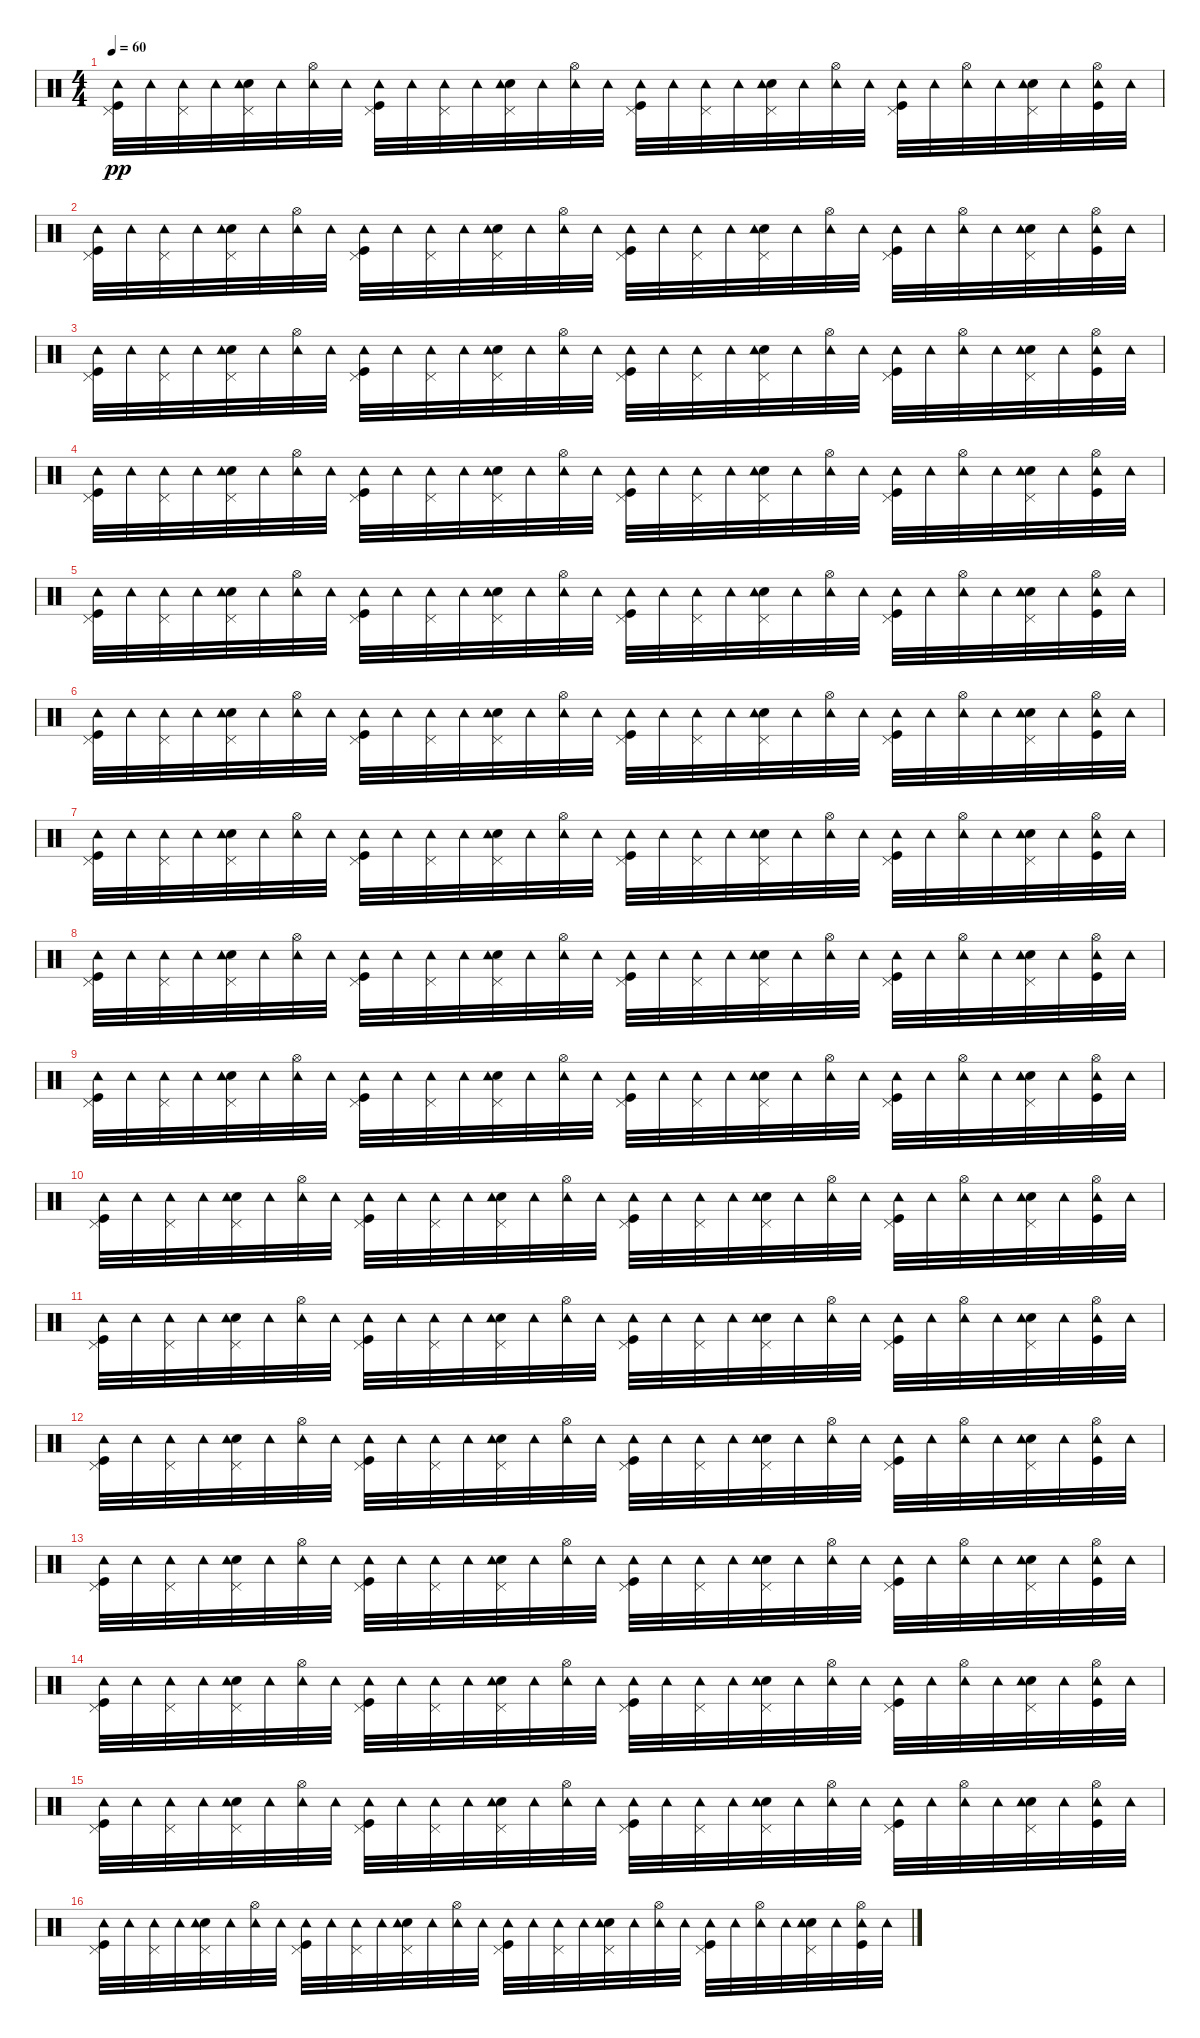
\track "" {instrument percussion}
\staff {score}
\articulation defaults
\ts (4 4)
\tempo 60
\clef neutral
\ks c
("Kick (hit)" "Pedal Hi-Hat (hit)" "Tambourine (hit)").32{dy pp} "Tambourine (hit)".32 ("Pedal Hi-Hat (hit)" "Tambourine (hit)").32 "Tambourine (hit)".32 ("Snare (hit) 2" "Pedal Hi-Hat (hit)" "Tambourine (hit)").32 "Tambourine (hit)".32 ("Hi-Hat (open)" "Tambourine (hit)").32 "Tambourine (hit)".32 ("Kick (hit)" "Pedal Hi-Hat (hit)" "Tambourine (hit)").32 "Tambourine (hit)".32 ("Pedal Hi-Hat (hit)" "Tambourine (hit)").32 "Tambourine (hit)".32 ("Snare (hit) 2" "Pedal Hi-Hat (hit)" "Tambourine (hit)").32 "Tambourine (hit)".32 ("Hi-Hat (open)" "Tambourine (hit)").32 "Tambourine (hit)".32 ("Kick (hit)" "Pedal Hi-Hat (hit)" "Tambourine (hit)").32 "Tambourine (hit)".32 ("Pedal Hi-Hat (hit)" "Tambourine (hit)").32 "Tambourine (hit)".32 ("Snare (hit) 2" "Pedal Hi-Hat (hit)" "Tambourine (hit)").32 "Tambourine (hit)".32 ("Hi-Hat (open)" "Tambourine (hit)").32 "Tambourine (hit)".32 ("Kick (hit)" "Pedal Hi-Hat (hit)" "Tambourine (hit)").32 "Tambourine (hit)".32 ("Hi-Hat (open)" "Tambourine (hit)").32 "Tambourine (hit)".32 ("Snare (hit) 2" "Pedal Hi-Hat (hit)" "Tambourine (hit)").32 "Tambourine (hit)".32 ("Kick (hit)" "Hi-Hat (open)" "Tambourine (hit)").32 "Tambourine (hit)".32 |
("Kick (hit)" "Pedal Hi-Hat (hit)" "Tambourine (hit)").32 "Tambourine (hit)".32 ("Pedal Hi-Hat (hit)" "Tambourine (hit)").32 "Tambourine (hit)".32 ("Snare (hit) 2" "Pedal Hi-Hat (hit)" "Tambourine (hit)").32 "Tambourine (hit)".32 ("Hi-Hat (open)" "Tambourine (hit)").32 "Tambourine (hit)".32 ("Kick (hit)" "Pedal Hi-Hat (hit)" "Tambourine (hit)").32 "Tambourine (hit)".32 ("Pedal Hi-Hat (hit)" "Tambourine (hit)").32 "Tambourine (hit)".32 ("Snare (hit) 2" "Pedal Hi-Hat (hit)" "Tambourine (hit)").32 "Tambourine (hit)".32 ("Hi-Hat (open)" "Tambourine (hit)").32 "Tambourine (hit)".32 ("Kick (hit)" "Pedal Hi-Hat (hit)" "Tambourine (hit)").32 "Tambourine (hit)".32 ("Pedal Hi-Hat (hit)" "Tambourine (hit)").32 "Tambourine (hit)".32 ("Snare (hit) 2" "Pedal Hi-Hat (hit)" "Tambourine (hit)").32 "Tambourine (hit)".32 ("Hi-Hat (open)" "Tambourine (hit)").32 "Tambourine (hit)".32 ("Kick (hit)" "Pedal Hi-Hat (hit)" "Tambourine (hit)").32 "Tambourine (hit)".32 ("Hi-Hat (open)" "Tambourine (hit)").32 "Tambourine (hit)".32 ("Snare (hit) 2" "Pedal Hi-Hat (hit)" "Tambourine (hit)").32 "Tambourine (hit)".32 ("Kick (hit)" "Hi-Hat (open)" "Tambourine (hit)").32 "Tambourine (hit)".32 |
("Kick (hit)" "Pedal Hi-Hat (hit)" "Tambourine (hit)").32 "Tambourine (hit)".32 ("Pedal Hi-Hat (hit)" "Tambourine (hit)").32 "Tambourine (hit)".32 ("Snare (hit) 2" "Pedal Hi-Hat (hit)" "Tambourine (hit)").32 "Tambourine (hit)".32 ("Hi-Hat (open)" "Tambourine (hit)").32 "Tambourine (hit)".32 ("Kick (hit)" "Pedal Hi-Hat (hit)" "Tambourine (hit)").32 "Tambourine (hit)".32 ("Pedal Hi-Hat (hit)" "Tambourine (hit)").32 "Tambourine (hit)".32 ("Snare (hit) 2" "Pedal Hi-Hat (hit)" "Tambourine (hit)").32 "Tambourine (hit)".32 ("Hi-Hat (open)" "Tambourine (hit)").32 "Tambourine (hit)".32 ("Kick (hit)" "Pedal Hi-Hat (hit)" "Tambourine (hit)").32 "Tambourine (hit)".32 ("Pedal Hi-Hat (hit)" "Tambourine (hit)").32 "Tambourine (hit)".32 ("Snare (hit) 2" "Pedal Hi-Hat (hit)" "Tambourine (hit)").32 "Tambourine (hit)".32 ("Hi-Hat (open)" "Tambourine (hit)").32 "Tambourine (hit)".32 ("Kick (hit)" "Pedal Hi-Hat (hit)" "Tambourine (hit)").32 "Tambourine (hit)".32 ("Hi-Hat (open)" "Tambourine (hit)").32 "Tambourine (hit)".32 ("Snare (hit) 2" "Pedal Hi-Hat (hit)" "Tambourine (hit)").32 "Tambourine (hit)".32 ("Kick (hit)" "Hi-Hat (open)" "Tambourine (hit)").32 "Tambourine (hit)".32 |
("Kick (hit)" "Pedal Hi-Hat (hit)" "Tambourine (hit)").32 "Tambourine (hit)".32 ("Pedal Hi-Hat (hit)" "Tambourine (hit)").32 "Tambourine (hit)".32 ("Snare (hit) 2" "Pedal Hi-Hat (hit)" "Tambourine (hit)").32 "Tambourine (hit)".32 ("Hi-Hat (open)" "Tambourine (hit)").32 "Tambourine (hit)".32 ("Kick (hit)" "Pedal Hi-Hat (hit)" "Tambourine (hit)").32 "Tambourine (hit)".32 ("Pedal Hi-Hat (hit)" "Tambourine (hit)").32 "Tambourine (hit)".32 ("Snare (hit) 2" "Pedal Hi-Hat (hit)" "Tambourine (hit)").32 "Tambourine (hit)".32 ("Hi-Hat (open)" "Tambourine (hit)").32 "Tambourine (hit)".32 ("Kick (hit)" "Pedal Hi-Hat (hit)" "Tambourine (hit)").32 "Tambourine (hit)".32 ("Pedal Hi-Hat (hit)" "Tambourine (hit)").32 "Tambourine (hit)".32 ("Snare (hit) 2" "Pedal Hi-Hat (hit)" "Tambourine (hit)").32 "Tambourine (hit)".32 ("Hi-Hat (open)" "Tambourine (hit)").32 "Tambourine (hit)".32 ("Kick (hit)" "Pedal Hi-Hat (hit)" "Tambourine (hit)").32 "Tambourine (hit)".32 ("Hi-Hat (open)" "Tambourine (hit)").32 "Tambourine (hit)".32 ("Snare (hit) 2" "Pedal Hi-Hat (hit)" "Tambourine (hit)").32 "Tambourine (hit)".32 ("Kick (hit)" "Hi-Hat (open)" "Tambourine (hit)").32 "Tambourine (hit)".32 |
("Kick (hit)" "Pedal Hi-Hat (hit)" "Tambourine (hit)").32 "Tambourine (hit)".32 ("Pedal Hi-Hat (hit)" "Tambourine (hit)").32 "Tambourine (hit)".32 ("Snare (hit) 2" "Pedal Hi-Hat (hit)" "Tambourine (hit)").32 "Tambourine (hit)".32 ("Hi-Hat (open)" "Tambourine (hit)").32 "Tambourine (hit)".32 ("Kick (hit)" "Pedal Hi-Hat (hit)" "Tambourine (hit)").32 "Tambourine (hit)".32 ("Pedal Hi-Hat (hit)" "Tambourine (hit)").32 "Tambourine (hit)".32 ("Snare (hit) 2" "Pedal Hi-Hat (hit)" "Tambourine (hit)").32 "Tambourine (hit)".32 ("Hi-Hat (open)" "Tambourine (hit)").32 "Tambourine (hit)".32 ("Kick (hit)" "Pedal Hi-Hat (hit)" "Tambourine (hit)").32 "Tambourine (hit)".32 ("Pedal Hi-Hat (hit)" "Tambourine (hit)").32 "Tambourine (hit)".32 ("Snare (hit) 2" "Pedal Hi-Hat (hit)" "Tambourine (hit)").32 "Tambourine (hit)".32 ("Hi-Hat (open)" "Tambourine (hit)").32 "Tambourine (hit)".32 ("Kick (hit)" "Pedal Hi-Hat (hit)" "Tambourine (hit)").32 "Tambourine (hit)".32 ("Hi-Hat (open)" "Tambourine (hit)").32 "Tambourine (hit)".32 ("Snare (hit) 2" "Pedal Hi-Hat (hit)" "Tambourine (hit)").32 "Tambourine (hit)".32 ("Kick (hit)" "Hi-Hat (open)" "Tambourine (hit)").32 "Tambourine (hit)".32 |
("Kick (hit)" "Pedal Hi-Hat (hit)" "Tambourine (hit)").32 "Tambourine (hit)".32 ("Pedal Hi-Hat (hit)" "Tambourine (hit)").32 "Tambourine (hit)".32 ("Snare (hit) 2" "Pedal Hi-Hat (hit)" "Tambourine (hit)").32 "Tambourine (hit)".32 ("Hi-Hat (open)" "Tambourine (hit)").32 "Tambourine (hit)".32 ("Kick (hit)" "Pedal Hi-Hat (hit)" "Tambourine (hit)").32 "Tambourine (hit)".32 ("Pedal Hi-Hat (hit)" "Tambourine (hit)").32 "Tambourine (hit)".32 ("Snare (hit) 2" "Pedal Hi-Hat (hit)" "Tambourine (hit)").32 "Tambourine (hit)".32 ("Hi-Hat (open)" "Tambourine (hit)").32 "Tambourine (hit)".32 ("Kick (hit)" "Pedal Hi-Hat (hit)" "Tambourine (hit)").32 "Tambourine (hit)".32 ("Pedal Hi-Hat (hit)" "Tambourine (hit)").32 "Tambourine (hit)".32 ("Snare (hit) 2" "Pedal Hi-Hat (hit)" "Tambourine (hit)").32 "Tambourine (hit)".32 ("Hi-Hat (open)" "Tambourine (hit)").32 "Tambourine (hit)".32 ("Kick (hit)" "Pedal Hi-Hat (hit)" "Tambourine (hit)").32 "Tambourine (hit)".32 ("Hi-Hat (open)" "Tambourine (hit)").32 "Tambourine (hit)".32 ("Snare (hit) 2" "Pedal Hi-Hat (hit)" "Tambourine (hit)").32 "Tambourine (hit)".32 ("Kick (hit)" "Hi-Hat (open)" "Tambourine (hit)").32 "Tambourine (hit)".32 |
("Kick (hit)" "Pedal Hi-Hat (hit)" "Tambourine (hit)").32 "Tambourine (hit)".32 ("Pedal Hi-Hat (hit)" "Tambourine (hit)").32 "Tambourine (hit)".32 ("Snare (hit) 2" "Pedal Hi-Hat (hit)" "Tambourine (hit)").32 "Tambourine (hit)".32 ("Hi-Hat (open)" "Tambourine (hit)").32 "Tambourine (hit)".32 ("Kick (hit)" "Pedal Hi-Hat (hit)" "Tambourine (hit)").32 "Tambourine (hit)".32 ("Pedal Hi-Hat (hit)" "Tambourine (hit)").32 "Tambourine (hit)".32 ("Snare (hit) 2" "Pedal Hi-Hat (hit)" "Tambourine (hit)").32 "Tambourine (hit)".32 ("Hi-Hat (open)" "Tambourine (hit)").32 "Tambourine (hit)".32 ("Kick (hit)" "Pedal Hi-Hat (hit)" "Tambourine (hit)").32 "Tambourine (hit)".32 ("Pedal Hi-Hat (hit)" "Tambourine (hit)").32 "Tambourine (hit)".32 ("Snare (hit) 2" "Pedal Hi-Hat (hit)" "Tambourine (hit)").32 "Tambourine (hit)".32 ("Hi-Hat (open)" "Tambourine (hit)").32 "Tambourine (hit)".32 ("Kick (hit)" "Pedal Hi-Hat (hit)" "Tambourine (hit)").32 "Tambourine (hit)".32 ("Hi-Hat (open)" "Tambourine (hit)").32 "Tambourine (hit)".32 ("Snare (hit) 2" "Pedal Hi-Hat (hit)" "Tambourine (hit)").32 "Tambourine (hit)".32 ("Kick (hit)" "Hi-Hat (open)" "Tambourine (hit)").32 "Tambourine (hit)".32 |
("Kick (hit)" "Pedal Hi-Hat (hit)" "Tambourine (hit)").32 "Tambourine (hit)".32 ("Pedal Hi-Hat (hit)" "Tambourine (hit)").32 "Tambourine (hit)".32 ("Snare (hit) 2" "Pedal Hi-Hat (hit)" "Tambourine (hit)").32 "Tambourine (hit)".32 ("Hi-Hat (open)" "Tambourine (hit)").32 "Tambourine (hit)".32 ("Kick (hit)" "Pedal Hi-Hat (hit)" "Tambourine (hit)").32 "Tambourine (hit)".32 ("Pedal Hi-Hat (hit)" "Tambourine (hit)").32 "Tambourine (hit)".32 ("Snare (hit) 2" "Pedal Hi-Hat (hit)" "Tambourine (hit)").32 "Tambourine (hit)".32 ("Hi-Hat (open)" "Tambourine (hit)").32 "Tambourine (hit)".32 ("Kick (hit)" "Pedal Hi-Hat (hit)" "Tambourine (hit)").32 "Tambourine (hit)".32 ("Pedal Hi-Hat (hit)" "Tambourine (hit)").32 "Tambourine (hit)".32 ("Snare (hit) 2" "Pedal Hi-Hat (hit)" "Tambourine (hit)").32 "Tambourine (hit)".32 ("Hi-Hat (open)" "Tambourine (hit)").32 "Tambourine (hit)".32 ("Kick (hit)" "Pedal Hi-Hat (hit)" "Tambourine (hit)").32 "Tambourine (hit)".32 ("Hi-Hat (open)" "Tambourine (hit)").32 "Tambourine (hit)".32 ("Snare (hit) 2" "Pedal Hi-Hat (hit)" "Tambourine (hit)").32 "Tambourine (hit)".32 ("Kick (hit)" "Hi-Hat (open)" "Tambourine (hit)").32 "Tambourine (hit)".32 |
("Kick (hit)" "Pedal Hi-Hat (hit)" "Tambourine (hit)").32 "Tambourine (hit)".32 ("Pedal Hi-Hat (hit)" "Tambourine (hit)").32 "Tambourine (hit)".32 ("Snare (hit) 2" "Pedal Hi-Hat (hit)" "Tambourine (hit)").32 "Tambourine (hit)".32 ("Hi-Hat (open)" "Tambourine (hit)").32 "Tambourine (hit)".32 ("Kick (hit)" "Pedal Hi-Hat (hit)" "Tambourine (hit)").32 "Tambourine (hit)".32 ("Pedal Hi-Hat (hit)" "Tambourine (hit)").32 "Tambourine (hit)".32 ("Snare (hit) 2" "Pedal Hi-Hat (hit)" "Tambourine (hit)").32 "Tambourine (hit)".32 ("Hi-Hat (open)" "Tambourine (hit)").32 "Tambourine (hit)".32 ("Kick (hit)" "Pedal Hi-Hat (hit)" "Tambourine (hit)").32 "Tambourine (hit)".32 ("Pedal Hi-Hat (hit)" "Tambourine (hit)").32 "Tambourine (hit)".32 ("Snare (hit) 2" "Pedal Hi-Hat (hit)" "Tambourine (hit)").32 "Tambourine (hit)".32 ("Hi-Hat (open)" "Tambourine (hit)").32 "Tambourine (hit)".32 ("Kick (hit)" "Pedal Hi-Hat (hit)" "Tambourine (hit)").32 "Tambourine (hit)".32 ("Hi-Hat (open)" "Tambourine (hit)").32 "Tambourine (hit)".32 ("Snare (hit) 2" "Pedal Hi-Hat (hit)" "Tambourine (hit)").32 "Tambourine (hit)".32 ("Kick (hit)" "Hi-Hat (open)" "Tambourine (hit)").32 "Tambourine (hit)".32 |
("Kick (hit)" "Pedal Hi-Hat (hit)" "Tambourine (hit)").32 "Tambourine (hit)".32 ("Pedal Hi-Hat (hit)" "Tambourine (hit)").32 "Tambourine (hit)".32 ("Snare (hit) 2" "Pedal Hi-Hat (hit)" "Tambourine (hit)").32 "Tambourine (hit)".32 ("Hi-Hat (open)" "Tambourine (hit)").32 "Tambourine (hit)".32 ("Kick (hit)" "Pedal Hi-Hat (hit)" "Tambourine (hit)").32 "Tambourine (hit)".32 ("Pedal Hi-Hat (hit)" "Tambourine (hit)").32 "Tambourine (hit)".32 ("Snare (hit) 2" "Pedal Hi-Hat (hit)" "Tambourine (hit)").32 "Tambourine (hit)".32 ("Hi-Hat (open)" "Tambourine (hit)").32 "Tambourine (hit)".32 ("Kick (hit)" "Pedal Hi-Hat (hit)" "Tambourine (hit)").32 "Tambourine (hit)".32 ("Pedal Hi-Hat (hit)" "Tambourine (hit)").32 "Tambourine (hit)".32 ("Snare (hit) 2" "Pedal Hi-Hat (hit)" "Tambourine (hit)").32 "Tambourine (hit)".32 ("Hi-Hat (open)" "Tambourine (hit)").32 "Tambourine (hit)".32 ("Kick (hit)" "Pedal Hi-Hat (hit)" "Tambourine (hit)").32 "Tambourine (hit)".32 ("Hi-Hat (open)" "Tambourine (hit)").32 "Tambourine (hit)".32 ("Snare (hit) 2" "Pedal Hi-Hat (hit)" "Tambourine (hit)").32 "Tambourine (hit)".32 ("Kick (hit)" "Hi-Hat (open)" "Tambourine (hit)").32 "Tambourine (hit)".32 |
("Kick (hit)" "Pedal Hi-Hat (hit)" "Tambourine (hit)").32 "Tambourine (hit)".32 ("Pedal Hi-Hat (hit)" "Tambourine (hit)").32 "Tambourine (hit)".32 ("Snare (hit) 2" "Pedal Hi-Hat (hit)" "Tambourine (hit)").32 "Tambourine (hit)".32 ("Hi-Hat (open)" "Tambourine (hit)").32 "Tambourine (hit)".32 ("Kick (hit)" "Pedal Hi-Hat (hit)" "Tambourine (hit)").32 "Tambourine (hit)".32 ("Pedal Hi-Hat (hit)" "Tambourine (hit)").32 "Tambourine (hit)".32 ("Snare (hit) 2" "Pedal Hi-Hat (hit)" "Tambourine (hit)").32 "Tambourine (hit)".32 ("Hi-Hat (open)" "Tambourine (hit)").32 "Tambourine (hit)".32 ("Kick (hit)" "Pedal Hi-Hat (hit)" "Tambourine (hit)").32 "Tambourine (hit)".32 ("Pedal Hi-Hat (hit)" "Tambourine (hit)").32 "Tambourine (hit)".32 ("Snare (hit) 2" "Pedal Hi-Hat (hit)" "Tambourine (hit)").32 "Tambourine (hit)".32 ("Hi-Hat (open)" "Tambourine (hit)").32 "Tambourine (hit)".32 ("Kick (hit)" "Pedal Hi-Hat (hit)" "Tambourine (hit)").32 "Tambourine (hit)".32 ("Hi-Hat (open)" "Tambourine (hit)").32 "Tambourine (hit)".32 ("Snare (hit) 2" "Pedal Hi-Hat (hit)" "Tambourine (hit)").32 "Tambourine (hit)".32 ("Kick (hit)" "Hi-Hat (open)" "Tambourine (hit)").32 "Tambourine (hit)".32 |
("Kick (hit)" "Pedal Hi-Hat (hit)" "Tambourine (hit)").32 "Tambourine (hit)".32 ("Pedal Hi-Hat (hit)" "Tambourine (hit)").32 "Tambourine (hit)".32 ("Snare (hit) 2" "Pedal Hi-Hat (hit)" "Tambourine (hit)").32 "Tambourine (hit)".32 ("Hi-Hat (open)" "Tambourine (hit)").32 "Tambourine (hit)".32 ("Kick (hit)" "Pedal Hi-Hat (hit)" "Tambourine (hit)").32 "Tambourine (hit)".32 ("Pedal Hi-Hat (hit)" "Tambourine (hit)").32 "Tambourine (hit)".32 ("Snare (hit) 2" "Pedal Hi-Hat (hit)" "Tambourine (hit)").32 "Tambourine (hit)".32 ("Hi-Hat (open)" "Tambourine (hit)").32 "Tambourine (hit)".32 ("Kick (hit)" "Pedal Hi-Hat (hit)" "Tambourine (hit)").32 "Tambourine (hit)".32 ("Pedal Hi-Hat (hit)" "Tambourine (hit)").32 "Tambourine (hit)".32 ("Snare (hit) 2" "Pedal Hi-Hat (hit)" "Tambourine (hit)").32 "Tambourine (hit)".32 ("Hi-Hat (open)" "Tambourine (hit)").32 "Tambourine (hit)".32 ("Kick (hit)" "Pedal Hi-Hat (hit)" "Tambourine (hit)").32 "Tambourine (hit)".32 ("Hi-Hat (open)" "Tambourine (hit)").32 "Tambourine (hit)".32 ("Snare (hit) 2" "Pedal Hi-Hat (hit)" "Tambourine (hit)").32 "Tambourine (hit)".32 ("Kick (hit)" "Hi-Hat (open)" "Tambourine (hit)").32 "Tambourine (hit)".32 |
("Kick (hit)" "Pedal Hi-Hat (hit)" "Tambourine (hit)").32 "Tambourine (hit)".32 ("Pedal Hi-Hat (hit)" "Tambourine (hit)").32 "Tambourine (hit)".32 ("Snare (hit) 2" "Pedal Hi-Hat (hit)" "Tambourine (hit)").32 "Tambourine (hit)".32 ("Hi-Hat (open)" "Tambourine (hit)").32 "Tambourine (hit)".32 ("Kick (hit)" "Pedal Hi-Hat (hit)" "Tambourine (hit)").32 "Tambourine (hit)".32 ("Pedal Hi-Hat (hit)" "Tambourine (hit)").32 "Tambourine (hit)".32 ("Snare (hit) 2" "Pedal Hi-Hat (hit)" "Tambourine (hit)").32 "Tambourine (hit)".32 ("Hi-Hat (open)" "Tambourine (hit)").32 "Tambourine (hit)".32 ("Kick (hit)" "Pedal Hi-Hat (hit)" "Tambourine (hit)").32 "Tambourine (hit)".32 ("Pedal Hi-Hat (hit)" "Tambourine (hit)").32 "Tambourine (hit)".32 ("Snare (hit) 2" "Pedal Hi-Hat (hit)" "Tambourine (hit)").32 "Tambourine (hit)".32 ("Hi-Hat (open)" "Tambourine (hit)").32 "Tambourine (hit)".32 ("Kick (hit)" "Pedal Hi-Hat (hit)" "Tambourine (hit)").32 "Tambourine (hit)".32 ("Hi-Hat (open)" "Tambourine (hit)").32 "Tambourine (hit)".32 ("Snare (hit) 2" "Pedal Hi-Hat (hit)" "Tambourine (hit)").32 "Tambourine (hit)".32 ("Kick (hit)" "Hi-Hat (open)" "Tambourine (hit)").32 "Tambourine (hit)".32 |
("Kick (hit)" "Pedal Hi-Hat (hit)" "Tambourine (hit)").32 "Tambourine (hit)".32 ("Pedal Hi-Hat (hit)" "Tambourine (hit)").32 "Tambourine (hit)".32 ("Snare (hit) 2" "Pedal Hi-Hat (hit)" "Tambourine (hit)").32 "Tambourine (hit)".32 ("Hi-Hat (open)" "Tambourine (hit)").32 "Tambourine (hit)".32 ("Kick (hit)" "Pedal Hi-Hat (hit)" "Tambourine (hit)").32 "Tambourine (hit)".32 ("Pedal Hi-Hat (hit)" "Tambourine (hit)").32 "Tambourine (hit)".32 ("Snare (hit) 2" "Pedal Hi-Hat (hit)" "Tambourine (hit)").32 "Tambourine (hit)".32 ("Hi-Hat (open)" "Tambourine (hit)").32 "Tambourine (hit)".32 ("Kick (hit)" "Pedal Hi-Hat (hit)" "Tambourine (hit)").32 "Tambourine (hit)".32 ("Pedal Hi-Hat (hit)" "Tambourine (hit)").32 "Tambourine (hit)".32 ("Snare (hit) 2" "Pedal Hi-Hat (hit)" "Tambourine (hit)").32 "Tambourine (hit)".32 ("Hi-Hat (open)" "Tambourine (hit)").32 "Tambourine (hit)".32 ("Kick (hit)" "Pedal Hi-Hat (hit)" "Tambourine (hit)").32 "Tambourine (hit)".32 ("Hi-Hat (open)" "Tambourine (hit)").32 "Tambourine (hit)".32 ("Snare (hit) 2" "Pedal Hi-Hat (hit)" "Tambourine (hit)").32 "Tambourine (hit)".32 ("Kick (hit)" "Hi-Hat (open)" "Tambourine (hit)").32 "Tambourine (hit)".32 |
("Kick (hit)" "Pedal Hi-Hat (hit)" "Tambourine (hit)").32 "Tambourine (hit)".32 ("Pedal Hi-Hat (hit)" "Tambourine (hit)").32 "Tambourine (hit)".32 ("Snare (hit) 2" "Pedal Hi-Hat (hit)" "Tambourine (hit)").32 "Tambourine (hit)".32 ("Hi-Hat (open)" "Tambourine (hit)").32 "Tambourine (hit)".32 ("Kick (hit)" "Pedal Hi-Hat (hit)" "Tambourine (hit)").32 "Tambourine (hit)".32 ("Pedal Hi-Hat (hit)" "Tambourine (hit)").32 "Tambourine (hit)".32 ("Snare (hit) 2" "Pedal Hi-Hat (hit)" "Tambourine (hit)").32 "Tambourine (hit)".32 ("Hi-Hat (open)" "Tambourine (hit)").32 "Tambourine (hit)".32 ("Kick (hit)" "Pedal Hi-Hat (hit)" "Tambourine (hit)").32 "Tambourine (hit)".32 ("Pedal Hi-Hat (hit)" "Tambourine (hit)").32 "Tambourine (hit)".32 ("Snare (hit) 2" "Pedal Hi-Hat (hit)" "Tambourine (hit)").32 "Tambourine (hit)".32 ("Hi-Hat (open)" "Tambourine (hit)").32 "Tambourine (hit)".32 ("Kick (hit)" "Pedal Hi-Hat (hit)" "Tambourine (hit)").32 "Tambourine (hit)".32 ("Hi-Hat (open)" "Tambourine (hit)").32 "Tambourine (hit)".32 ("Snare (hit) 2" "Pedal Hi-Hat (hit)" "Tambourine (hit)").32 "Tambourine (hit)".32 ("Kick (hit)" "Hi-Hat (open)" "Tambourine (hit)").32 "Tambourine (hit)".32 |
("Kick (hit)" "Pedal Hi-Hat (hit)" "Tambourine (hit)").32 "Tambourine (hit)".32 ("Pedal Hi-Hat (hit)" "Tambourine (hit)").32 "Tambourine (hit)".32 ("Snare (hit) 2" "Pedal Hi-Hat (hit)" "Tambourine (hit)").32 "Tambourine (hit)".32 ("Hi-Hat (open)" "Tambourine (hit)").32 "Tambourine (hit)".32 ("Kick (hit)" "Pedal Hi-Hat (hit)" "Tambourine (hit)").32 "Tambourine (hit)".32 ("Pedal Hi-Hat (hit)" "Tambourine (hit)").32 "Tambourine (hit)".32 ("Snare (hit) 2" "Pedal Hi-Hat (hit)" "Tambourine (hit)").32 "Tambourine (hit)".32 ("Hi-Hat (open)" "Tambourine (hit)").32 "Tambourine (hit)".32 ("Kick (hit)" "Pedal Hi-Hat (hit)" "Tambourine (hit)").32 "Tambourine (hit)".32 ("Pedal Hi-Hat (hit)" "Tambourine (hit)").32 "Tambourine (hit)".32 ("Snare (hit) 2" "Pedal Hi-Hat (hit)" "Tambourine (hit)").32 "Tambourine (hit)".32 ("Hi-Hat (open)" "Tambourine (hit)").32 "Tambourine (hit)".32 ("Kick (hit)" "Pedal Hi-Hat (hit)" "Tambourine (hit)").32 "Tambourine (hit)".32 ("Hi-Hat (open)" "Tambourine (hit)").32 "Tambourine (hit)".32 ("Snare (hit) 2" "Pedal Hi-Hat (hit)" "Tambourine (hit)").32 "Tambourine (hit)".32 ("Kick (hit)" "Hi-Hat (open)" "Tambourine (hit)").32 "Tambourine (hit)".32
